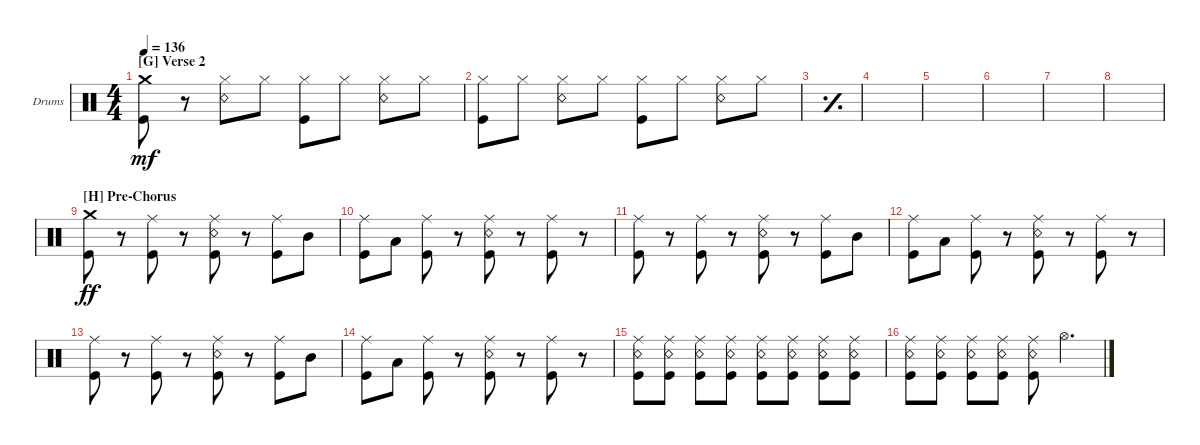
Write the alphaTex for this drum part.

\defaultSystemsLayout 4
\bracketExtendMode groupsimilarinstruments
\firstSystemTrackNameOrientation horizontal
\otherSystemsTrackNameOrientation horizontal
\track ("Drums" "Drums") {instrument percussion}
\staff {score}
\articulation defaults
\ts (4 4)
\section ("G" "Verse 2")
\tempo 136
\clef neutral
\ks c
("Crash medium (hit)" "Kick (hit)").8{dy mf} r.8 ("Hi-Hat (closed)" "Snare (rim shot)").8 "Hi-Hat (closed)".8 ("Hi-Hat (closed)" "Kick (hit)").8 "Hi-Hat (closed)".8 ("Hi-Hat (closed)" "Snare (rim shot)").8 "Hi-Hat (closed)".8 |
("Kick (hit)" "Hi-Hat (closed)").8 "Hi-Hat (closed)".8 ("Hi-Hat (closed)" "Snare (rim shot)").8 "Hi-Hat (closed)".8 ("Hi-Hat (closed)" "Kick (hit)").8 "Hi-Hat (closed)".8 ("Hi-Hat (closed)" "Snare (rim shot)").8 "Hi-Hat (closed)".8 |
\simile simple
|
|
|
|
|
|
\section ("H" "Pre-Chorus")
\simile none
("Crash medium (hit)" "Kick (hit)").8{dy ff} r.8 ("Ride (middle)" "Kick (hit)").8 r.8 ("Snare (rim shot)" "Ride (middle)" "Kick (hit)").8 r.8 ("Ride (middle)" "Kick (hit)").8 "Mid Tom (hit)".8 |
("Ride (middle)" "Kick (hit)").8 "Low Tom (hit)".8 ("Ride (middle)" "Kick (hit)").8 r.8 ("Snare (rim shot)" "Ride (middle)" "Kick (hit)").8 r.8 ("Ride (middle)" "Kick (hit)").8 r.8 |
("Kick (hit)" "Ride (middle)").8 r.8 ("Ride (middle)" "Kick (hit)").8 r.8 ("Snare (rim shot)" "Ride (middle)" "Kick (hit)").8 r.8 ("Ride (middle)" "Kick (hit)").8 "Mid Tom (hit)".8 |
("Ride (middle)" "Kick (hit)").8 "Low Tom (hit)".8 ("Ride (middle)" "Kick (hit)").8 r.8 ("Snare (rim shot)" "Ride (middle)" "Kick (hit)").8 r.8 ("Ride (middle)" "Kick (hit)").8 r.8 |
("Kick (hit)" "Ride (middle)").8 r.8 ("Ride (middle)" "Kick (hit)").8 r.8 ("Snare (rim shot)" "Ride (middle)" "Kick (hit)").8 r.8 ("Ride (middle)" "Kick (hit)").8 "Mid Tom (hit)".8 |
("Ride (middle)" "Kick (hit)").8 "Low Tom (hit)".8 ("Ride (middle)" "Kick (hit)").8 r.8 ("Snare (rim shot)" "Ride (middle)" "Kick (hit)").8 r.8 ("Ride (middle)" "Kick (hit)").8 r.8 |
("Ride (middle)" "Kick (hit)" "Snare (rim shot)").8 ("Ride (middle)" "Kick (hit)" "Snare (rim shot)").8 ("Ride (middle)" "Kick (hit)" "Snare (rim shot)").8 ("Ride (middle)" "Kick (hit)" "Snare (rim shot)").8 ("Ride (middle)" "Kick (hit)" "Snare (rim shot)").8 ("Ride (middle)" "Kick (hit)" "Snare (rim shot)").8 ("Ride (middle)" "Kick (hit)" "Snare (rim shot)").8 ("Ride (middle)" "Kick (hit)" "Snare (rim shot)").8 |
("Ride (middle)" "Kick (hit)" "Snare (rim shot)").8 ("Ride (middle)" "Kick (hit)" "Snare (rim shot)").8 ("Ride (middle)" "Kick (hit)" "Snare (rim shot)").8 ("Ride (middle)" "Kick (hit)" "Snare (rim shot)").8 ("Ride (middle)" "Kick (hit)" "Snare (rim shot)").8 "Hi-Hat (open)".4{d}
